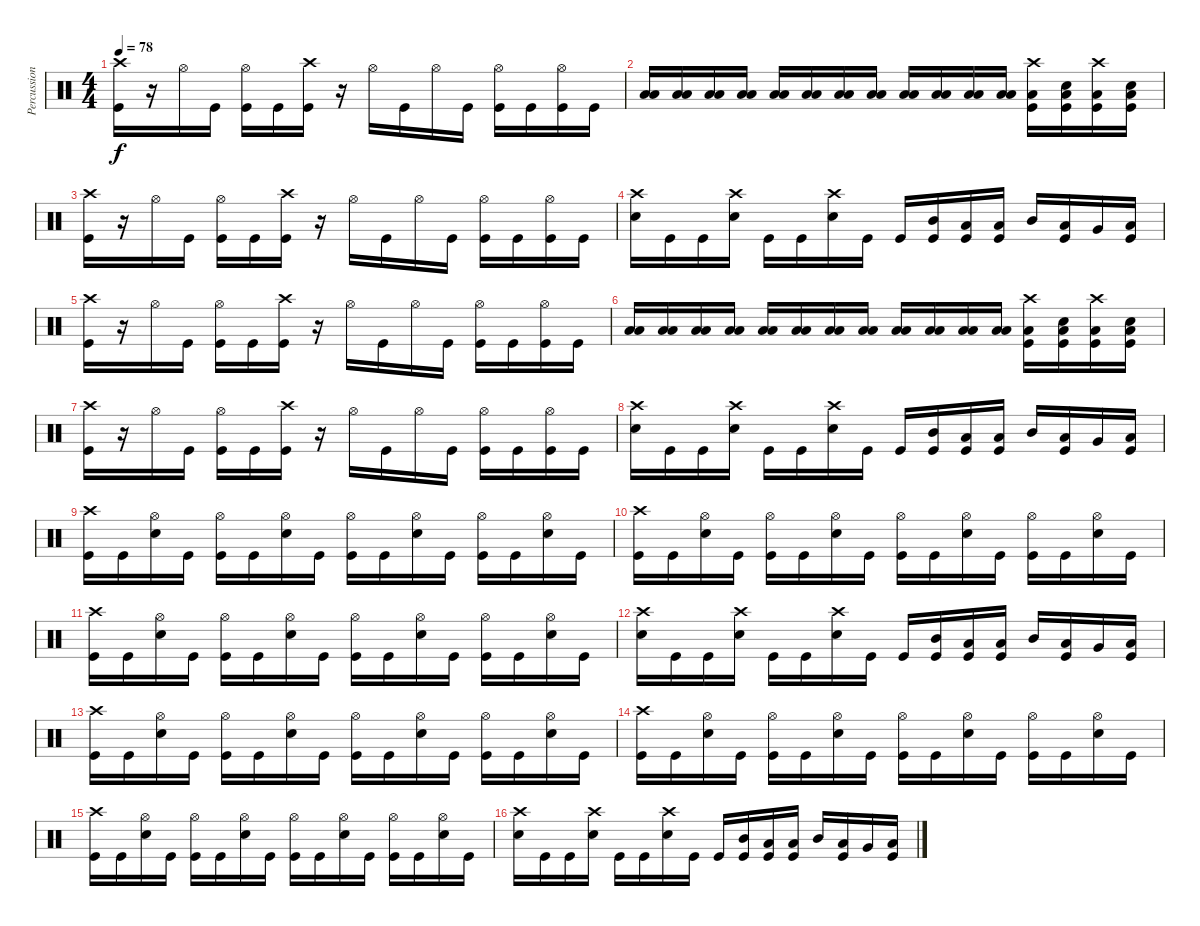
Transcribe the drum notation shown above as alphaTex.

\track ("Percussion" "Percussion") {instrument percussion}
\staff {score}
\articulation defaults
\ts (4 4)
\tempo 78
\clef neutral
\ks c
("Crash high (hit)" "Kick (hit)").16{dy f volume 12} r.16 "Hi-Hat (open)".16 "Kick (hit)".16 ("Hi-Hat (open)" "Kick (hit)").16 "Kick (hit)".16 ("Crash high (hit)" "Kick (hit)").16 r.16 "Hi-Hat (open)".16 "Kick (hit)".16 "Hi-Hat (open)".16 "Kick (hit)".16 ("Hi-Hat (open)" "Kick (hit)").16 "Kick (hit)".16 ("Hi-Hat (open)" "Kick (hit)").16 "Kick (hit)".16 |
("Low Floor Tom (hit)" "Low Tom (hit)").16{volume 3} ("Low Floor Tom (hit)" "Low Tom (hit)").16{volume 12} ("Low Floor Tom (hit)" "Low Tom (hit)").16 ("Low Floor Tom (hit)" "Low Tom (hit)").16 ("Low Floor Tom (hit)" "Low Tom (hit)").16 ("Low Floor Tom (hit)" "Low Tom (hit)").16 ("Low Floor Tom (hit)" "Low Tom (hit)").16 ("Low Floor Tom (hit)" "Low Tom (hit)").16 ("Low Floor Tom (hit)" "Low Tom (hit)").16 ("Low Floor Tom (hit)" "Low Tom (hit)").16 ("Low Floor Tom (hit)" "Low Tom (hit)").16 ("Low Floor Tom (hit)" "Low Tom (hit)").16 ("Crash high (hit)" "Low Floor Tom (hit)" "Kick (hit)").16 ("Snare (hit) 2" "Low Floor Tom (hit)" "Kick (hit)").16 ("Crash high (hit)" "Low Floor Tom (hit)" "Kick (hit)").16 ("Snare (hit) 2" "Low Floor Tom (hit)" "Kick (hit)").16 |
("Crash high (hit)" "Kick (hit)").16{volume 12} r.16 "Hi-Hat (open)".16 "Kick (hit)".16 ("Hi-Hat (open)" "Kick (hit)").16 "Kick (hit)".16 ("Crash high (hit)" "Kick (hit)").16 r.16 "Hi-Hat (open)".16 "Kick (hit)".16 "Hi-Hat (open)".16 "Kick (hit)".16 ("Hi-Hat (open)" "Kick (hit)").16 "Kick (hit)".16 ("Hi-Hat (open)" "Kick (hit)").16 "Kick (hit)".16 |
("Crash high (hit)" "Snare (hit) 2").16 "Kick (hit)".16 "Kick (hit)".16 ("Crash high (hit)" "Snare (hit) 2").16 "Kick (hit)".16 "Kick (hit)".16 ("Crash high (hit)" "Snare (hit) 2").16 "Kick (hit)".16 "Kick (hit)".16{volume 16} ("Mid Tom (hit)" "Kick (hit)").16 ("Low Tom (hit)" "Kick (hit)").16 ("Low Floor Tom (hit)" "Kick (hit)").16 "Mid Tom (hit)".16 ("Low Tom (hit)" "Kick (hit)").16 "Very Low Tom (hit)".16 ("Low Floor Tom (hit)" "Kick (hit)").16 |
("Crash high (hit)" "Kick (hit)").16{volume 12} r.16 "Hi-Hat (open)".16 "Kick (hit)".16 ("Hi-Hat (open)" "Kick (hit)").16 "Kick (hit)".16 ("Crash high (hit)" "Kick (hit)").16 r.16 "Hi-Hat (open)".16 "Kick (hit)".16 "Hi-Hat (open)".16 "Kick (hit)".16 ("Hi-Hat (open)" "Kick (hit)").16 "Kick (hit)".16 ("Hi-Hat (open)" "Kick (hit)").16 "Kick (hit)".16 |
("Low Floor Tom (hit)" "Low Tom (hit)").16{volume 3} ("Low Floor Tom (hit)" "Low Tom (hit)").16{volume 12} ("Low Floor Tom (hit)" "Low Tom (hit)").16 ("Low Floor Tom (hit)" "Low Tom (hit)").16 ("Low Floor Tom (hit)" "Low Tom (hit)").16 ("Low Floor Tom (hit)" "Low Tom (hit)").16 ("Low Floor Tom (hit)" "Low Tom (hit)").16 ("Low Floor Tom (hit)" "Low Tom (hit)").16 ("Low Floor Tom (hit)" "Low Tom (hit)").16 ("Low Floor Tom (hit)" "Low Tom (hit)").16 ("Low Floor Tom (hit)" "Low Tom (hit)").16 ("Low Floor Tom (hit)" "Low Tom (hit)").16 ("Crash high (hit)" "Low Floor Tom (hit)" "Kick (hit)").16 ("Snare (hit) 2" "Low Floor Tom (hit)" "Kick (hit)").16 ("Crash high (hit)" "Low Floor Tom (hit)" "Kick (hit)").16 ("Snare (hit) 2" "Low Floor Tom (hit)" "Kick (hit)").16 |
("Crash high (hit)" "Kick (hit)").16{volume 12} r.16 "Hi-Hat (open)".16 "Kick (hit)".16 ("Hi-Hat (open)" "Kick (hit)").16 "Kick (hit)".16 ("Crash high (hit)" "Kick (hit)").16 r.16 "Hi-Hat (open)".16 "Kick (hit)".16 "Hi-Hat (open)".16 "Kick (hit)".16 ("Hi-Hat (open)" "Kick (hit)").16 "Kick (hit)".16 ("Hi-Hat (open)" "Kick (hit)").16 "Kick (hit)".16 |
("Crash high (hit)" "Snare (hit) 2").16 "Kick (hit)".16 "Kick (hit)".16 ("Crash high (hit)" "Snare (hit) 2").16 "Kick (hit)".16 "Kick (hit)".16 ("Crash high (hit)" "Snare (hit) 2").16 "Kick (hit)".16 "Kick (hit)".16{volume 16} ("Mid Tom (hit)" "Kick (hit)").16 ("Low Tom (hit)" "Kick (hit)").16 ("Low Floor Tom (hit)" "Kick (hit)").16 "Mid Tom (hit)".16 ("Low Tom (hit)" "Kick (hit)").16 "Very Low Tom (hit)".16 ("Low Floor Tom (hit)" "Kick (hit)").16 |
("Crash high (hit)" "Kick (hit)").16 "Kick (hit)".16 ("Hi-Hat (open)" "Snare (hit) 2").16 "Kick (hit)".16 ("Hi-Hat (open)" "Kick (hit)").16 "Kick (hit)".16 ("Hi-Hat (open)" "Snare (hit) 2").16 "Kick (hit)".16 ("Hi-Hat (open)" "Kick (hit)").16 "Kick (hit)".16 ("Hi-Hat (open)" "Snare (hit) 2").16 "Kick (hit)".16 ("Hi-Hat (open)" "Kick (hit)").16 "Kick (hit)".16 ("Hi-Hat (open)" "Snare (hit) 2").16 "Kick (hit)".16 |
("Crash high (hit)" "Kick (hit)").16 "Kick (hit)".16 ("Hi-Hat (open)" "Snare (hit) 2").16 "Kick (hit)".16 ("Hi-Hat (open)" "Kick (hit)").16 "Kick (hit)".16 ("Hi-Hat (open)" "Snare (hit) 2").16 "Kick (hit)".16 ("Hi-Hat (open)" "Kick (hit)").16 "Kick (hit)".16 ("Hi-Hat (open)" "Snare (hit) 2").16 "Kick (hit)".16 ("Hi-Hat (open)" "Kick (hit)").16 "Kick (hit)".16 ("Hi-Hat (open)" "Snare (hit) 2").16 "Kick (hit)".16 |
("Crash high (hit)" "Kick (hit)").16 "Kick (hit)".16 ("Hi-Hat (open)" "Snare (hit) 2").16 "Kick (hit)".16 ("Hi-Hat (open)" "Kick (hit)").16 "Kick (hit)".16 ("Hi-Hat (open)" "Snare (hit) 2").16 "Kick (hit)".16 ("Hi-Hat (open)" "Kick (hit)").16 "Kick (hit)".16 ("Hi-Hat (open)" "Snare (hit) 2").16 "Kick (hit)".16 ("Hi-Hat (open)" "Kick (hit)").16 "Kick (hit)".16 ("Hi-Hat (open)" "Snare (hit) 2").16 "Kick (hit)".16 |
("Crash high (hit)" "Snare (hit) 2").16 "Kick (hit)".16 "Kick (hit)".16 ("Crash high (hit)" "Snare (hit) 2").16 "Kick (hit)".16 "Kick (hit)".16 ("Crash high (hit)" "Snare (hit) 2").16 "Kick (hit)".16 "Kick (hit)".16{volume 16} ("Mid Tom (hit)" "Kick (hit)").16 ("Low Tom (hit)" "Kick (hit)").16 ("Low Floor Tom (hit)" "Kick (hit)").16 "Mid Tom (hit)".16 ("Low Tom (hit)" "Kick (hit)").16 "Very Low Tom (hit)".16 ("Low Floor Tom (hit)" "Kick (hit)").16 |
("Crash high (hit)" "Kick (hit)").16{volume 12} "Kick (hit)".16 ("Hi-Hat (open)" "Snare (hit) 2").16 "Kick (hit)".16 ("Hi-Hat (open)" "Kick (hit)").16 "Kick (hit)".16 ("Hi-Hat (open)" "Snare (hit) 2").16 "Kick (hit)".16 ("Hi-Hat (open)" "Kick (hit)").16 "Kick (hit)".16 ("Hi-Hat (open)" "Snare (hit) 2").16 "Kick (hit)".16 ("Hi-Hat (open)" "Kick (hit)").16 "Kick (hit)".16 ("Hi-Hat (open)" "Snare (hit) 2").16 "Kick (hit)".16 |
("Crash high (hit)" "Kick (hit)").16 "Kick (hit)".16 ("Hi-Hat (open)" "Snare (hit) 2").16 "Kick (hit)".16 ("Hi-Hat (open)" "Kick (hit)").16 "Kick (hit)".16 ("Hi-Hat (open)" "Snare (hit) 2").16 "Kick (hit)".16 ("Hi-Hat (open)" "Kick (hit)").16 "Kick (hit)".16 ("Hi-Hat (open)" "Snare (hit) 2").16 "Kick (hit)".16 ("Hi-Hat (open)" "Kick (hit)").16 "Kick (hit)".16 ("Hi-Hat (open)" "Snare (hit) 2").16 "Kick (hit)".16 |
("Crash high (hit)" "Kick (hit)").16 "Kick (hit)".16 ("Hi-Hat (open)" "Snare (hit) 2").16 "Kick (hit)".16 ("Hi-Hat (open)" "Kick (hit)").16 "Kick (hit)".16 ("Hi-Hat (open)" "Snare (hit) 2").16 "Kick (hit)".16 ("Hi-Hat (open)" "Kick (hit)").16 "Kick (hit)".16 ("Hi-Hat (open)" "Snare (hit) 2").16 "Kick (hit)".16 ("Hi-Hat (open)" "Kick (hit)").16 "Kick (hit)".16 ("Hi-Hat (open)" "Snare (hit) 2").16 "Kick (hit)".16 |
("Crash high (hit)" "Snare (hit) 2").16 "Kick (hit)".16 "Kick (hit)".16 ("Crash high (hit)" "Snare (hit) 2").16 "Kick (hit)".16 "Kick (hit)".16 ("Crash high (hit)" "Snare (hit) 2").16 "Kick (hit)".16 "Kick (hit)".16{volume 16} ("Mid Tom (hit)" "Kick (hit)").16 ("Low Tom (hit)" "Kick (hit)").16 ("Low Floor Tom (hit)" "Kick (hit)").16 "Mid Tom (hit)".16 ("Low Tom (hit)" "Kick (hit)").16 "Very Low Tom (hit)".16 ("Low Floor Tom (hit)" "Kick (hit)").16
